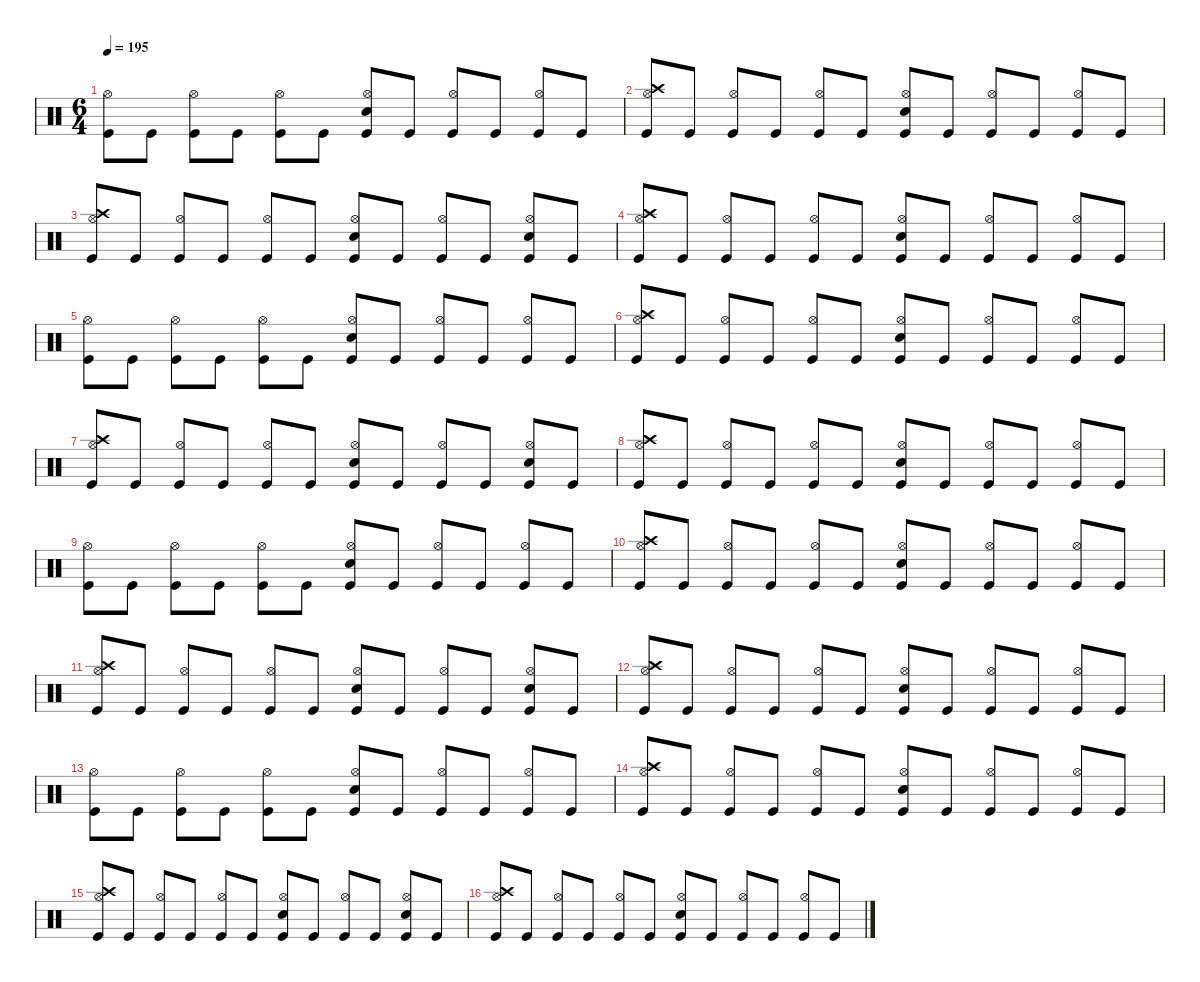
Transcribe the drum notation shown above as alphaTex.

\defaultSystemsLayout 4
\hideDynamics
\bracketExtendMode nobrackets
\singleTrackTrackNamePolicy hidden
\multiTrackTrackNamePolicy hidden
\firstSystemTrackNameMode fullname
\firstSystemTrackNameOrientation horizontal
\otherSystemsTrackNameOrientation horizontal
\track ("Percussion" "drm.") {instrument percussion}
\staff {score}
\articulation defaults
\ts (6 4)
\tempo 195
\clef neutral
\ks c
("Hi-Hat (open)" "Kick (hit)").8{dy f beam Down} "Kick (hit)".8{beam Down} ("Hi-Hat (open)" "Kick (hit)").8{beam Down} "Kick (hit)".8{beam Down} ("Hi-Hat (open)" "Kick (hit)").8{beam Down} "Kick (hit)".8{beam Down} ("Snare (hit) 2" "Hi-Hat (open)" "Kick (hit)").8{beam Up} "Kick (hit)".8{beam Up} ("Hi-Hat (open)" "Kick (hit)").8{beam Up} "Kick (hit)".8{beam Up} ("Hi-Hat (open)" "Kick (hit)").8{beam Up} "Kick (hit)".8{beam Up} |
("Crash high (hit)" "Hi-Hat (open)" "Kick (hit)").8{beam Up} "Kick (hit)".8{beam Up} ("Hi-Hat (open)" "Kick (hit)").8{beam Up} "Kick (hit)".8{beam Up} ("Hi-Hat (open)" "Kick (hit)").8{beam Up} "Kick (hit)".8{beam Up} ("Snare (hit) 2" "Hi-Hat (open)" "Kick (hit)").8{beam Up} "Kick (hit)".8{beam Up} ("Hi-Hat (open)" "Kick (hit)").8{beam Up} "Kick (hit)".8{beam Up} ("Hi-Hat (open)" "Kick (hit)").8{beam Up} "Kick (hit)".8{beam Up} |
("Crash high (hit)" "Hi-Hat (open)" "Kick (hit)").8{beam Up} "Kick (hit)".8{beam Up} ("Hi-Hat (open)" "Kick (hit)").8{beam Up} "Kick (hit)".8{beam Up} ("Hi-Hat (open)" "Kick (hit)").8{beam Up} "Kick (hit)".8{beam Up} ("Snare (hit) 2" "Hi-Hat (open)" "Kick (hit)").8{beam Up} "Kick (hit)".8{beam Up} ("Hi-Hat (open)" "Kick (hit)").8{beam Up} "Kick (hit)".8{beam Up} ("Snare (hit) 2" "Hi-Hat (open)" "Kick (hit)").8{beam Up} "Kick (hit)".8{beam Up} |
("Crash high (hit)" "Hi-Hat (open)" "Kick (hit)").8{beam Up} "Kick (hit)".8{beam Up} ("Hi-Hat (open)" "Kick (hit)").8{beam Up} "Kick (hit)".8{beam Up} ("Hi-Hat (open)" "Kick (hit)").8{beam Up} "Kick (hit)".8{beam Up} ("Snare (hit) 2" "Hi-Hat (open)" "Kick (hit)").8{beam Up} "Kick (hit)".8{beam Up} ("Hi-Hat (open)" "Kick (hit)").8{beam Up} "Kick (hit)".8{beam Up} ("Hi-Hat (open)" "Kick (hit)").8{beam Up} "Kick (hit)".8{beam Up} |
("Hi-Hat (open)" "Kick (hit)").8{beam Down} "Kick (hit)".8{beam Down} ("Hi-Hat (open)" "Kick (hit)").8{beam Down} "Kick (hit)".8{beam Down} ("Hi-Hat (open)" "Kick (hit)").8{beam Down} "Kick (hit)".8{beam Down} ("Snare (hit) 2" "Hi-Hat (open)" "Kick (hit)").8{beam Up} "Kick (hit)".8{beam Up} ("Hi-Hat (open)" "Kick (hit)").8{beam Up} "Kick (hit)".8{beam Up} ("Hi-Hat (open)" "Kick (hit)").8{beam Up} "Kick (hit)".8{beam Up} |
("Crash high (hit)" "Hi-Hat (open)" "Kick (hit)").8{beam Up} "Kick (hit)".8{beam Up} ("Hi-Hat (open)" "Kick (hit)").8{beam Up} "Kick (hit)".8{beam Up} ("Hi-Hat (open)" "Kick (hit)").8{beam Up} "Kick (hit)".8{beam Up} ("Snare (hit) 2" "Hi-Hat (open)" "Kick (hit)").8{beam Up} "Kick (hit)".8{beam Up} ("Hi-Hat (open)" "Kick (hit)").8{beam Up} "Kick (hit)".8{beam Up} ("Hi-Hat (open)" "Kick (hit)").8{beam Up} "Kick (hit)".8{beam Up} |
("Crash high (hit)" "Hi-Hat (open)" "Kick (hit)").8{beam Up} "Kick (hit)".8{beam Up} ("Hi-Hat (open)" "Kick (hit)").8{beam Up} "Kick (hit)".8{beam Up} ("Hi-Hat (open)" "Kick (hit)").8{beam Up} "Kick (hit)".8{beam Up} ("Snare (hit) 2" "Hi-Hat (open)" "Kick (hit)").8{beam Up} "Kick (hit)".8{beam Up} ("Hi-Hat (open)" "Kick (hit)").8{beam Up} "Kick (hit)".8{beam Up} ("Snare (hit) 2" "Hi-Hat (open)" "Kick (hit)").8{beam Up} "Kick (hit)".8{beam Up} |
("Crash high (hit)" "Hi-Hat (open)" "Kick (hit)").8{beam Up} "Kick (hit)".8{beam Up} ("Hi-Hat (open)" "Kick (hit)").8{beam Up} "Kick (hit)".8{beam Up} ("Hi-Hat (open)" "Kick (hit)").8{beam Up} "Kick (hit)".8{beam Up} ("Snare (hit) 2" "Hi-Hat (open)" "Kick (hit)").8{beam Up} "Kick (hit)".8{beam Up} ("Hi-Hat (open)" "Kick (hit)").8{beam Up} "Kick (hit)".8{beam Up} ("Hi-Hat (open)" "Kick (hit)").8{beam Up} "Kick (hit)".8{beam Up} |
("Hi-Hat (open)" "Kick (hit)").8{beam Down} "Kick (hit)".8{beam Down} ("Hi-Hat (open)" "Kick (hit)").8{beam Down} "Kick (hit)".8{beam Down} ("Hi-Hat (open)" "Kick (hit)").8{beam Down} "Kick (hit)".8{beam Down} ("Snare (hit) 2" "Hi-Hat (open)" "Kick (hit)").8{beam Up} "Kick (hit)".8{beam Up} ("Hi-Hat (open)" "Kick (hit)").8{beam Up} "Kick (hit)".8{beam Up} ("Hi-Hat (open)" "Kick (hit)").8{beam Up} "Kick (hit)".8{beam Up} |
("Crash high (hit)" "Hi-Hat (open)" "Kick (hit)").8{beam Up} "Kick (hit)".8{beam Up} ("Hi-Hat (open)" "Kick (hit)").8{beam Up} "Kick (hit)".8{beam Up} ("Hi-Hat (open)" "Kick (hit)").8{beam Up} "Kick (hit)".8{beam Up} ("Snare (hit) 2" "Hi-Hat (open)" "Kick (hit)").8{beam Up} "Kick (hit)".8{beam Up} ("Hi-Hat (open)" "Kick (hit)").8{beam Up} "Kick (hit)".8{beam Up} ("Hi-Hat (open)" "Kick (hit)").8{beam Up} "Kick (hit)".8{beam Up} |
("Crash high (hit)" "Hi-Hat (open)" "Kick (hit)").8{beam Up} "Kick (hit)".8{beam Up} ("Hi-Hat (open)" "Kick (hit)").8{beam Up} "Kick (hit)".8{beam Up} ("Hi-Hat (open)" "Kick (hit)").8{beam Up} "Kick (hit)".8{beam Up} ("Snare (hit) 2" "Hi-Hat (open)" "Kick (hit)").8{beam Up} "Kick (hit)".8{beam Up} ("Hi-Hat (open)" "Kick (hit)").8{beam Up} "Kick (hit)".8{beam Up} ("Snare (hit) 2" "Hi-Hat (open)" "Kick (hit)").8{beam Up} "Kick (hit)".8{beam Up} |
("Crash high (hit)" "Hi-Hat (open)" "Kick (hit)").8{beam Up} "Kick (hit)".8{beam Up} ("Hi-Hat (open)" "Kick (hit)").8{beam Up} "Kick (hit)".8{beam Up} ("Hi-Hat (open)" "Kick (hit)").8{beam Up} "Kick (hit)".8{beam Up} ("Snare (hit) 2" "Hi-Hat (open)" "Kick (hit)").8{beam Up} "Kick (hit)".8{beam Up} ("Hi-Hat (open)" "Kick (hit)").8{beam Up} "Kick (hit)".8{beam Up} ("Hi-Hat (open)" "Kick (hit)").8{beam Up} "Kick (hit)".8{beam Up} |
("Hi-Hat (open)" "Kick (hit)").8{beam Down} "Kick (hit)".8{beam Down} ("Hi-Hat (open)" "Kick (hit)").8{beam Down} "Kick (hit)".8{beam Down} ("Hi-Hat (open)" "Kick (hit)").8{beam Down} "Kick (hit)".8{beam Down} ("Snare (hit) 2" "Hi-Hat (open)" "Kick (hit)").8{beam Up} "Kick (hit)".8{beam Up} ("Hi-Hat (open)" "Kick (hit)").8{beam Up} "Kick (hit)".8{beam Up} ("Hi-Hat (open)" "Kick (hit)").8{beam Up} "Kick (hit)".8{beam Up} |
("Crash high (hit)" "Hi-Hat (open)" "Kick (hit)").8{beam Up} "Kick (hit)".8{beam Up} ("Hi-Hat (open)" "Kick (hit)").8{beam Up} "Kick (hit)".8{beam Up} ("Hi-Hat (open)" "Kick (hit)").8{beam Up} "Kick (hit)".8{beam Up} ("Snare (hit) 2" "Hi-Hat (open)" "Kick (hit)").8{beam Up} "Kick (hit)".8{beam Up} ("Hi-Hat (open)" "Kick (hit)").8{beam Up} "Kick (hit)".8{beam Up} ("Hi-Hat (open)" "Kick (hit)").8{beam Up} "Kick (hit)".8{beam Up} |
("Crash high (hit)" "Hi-Hat (open)" "Kick (hit)").8{beam Up} "Kick (hit)".8{beam Up} ("Hi-Hat (open)" "Kick (hit)").8{beam Up} "Kick (hit)".8{beam Up} ("Hi-Hat (open)" "Kick (hit)").8{beam Up} "Kick (hit)".8{beam Up} ("Snare (hit) 2" "Hi-Hat (open)" "Kick (hit)").8{beam Up} "Kick (hit)".8{beam Up} ("Hi-Hat (open)" "Kick (hit)").8{beam Up} "Kick (hit)".8{beam Up} ("Snare (hit) 2" "Hi-Hat (open)" "Kick (hit)").8{beam Up} "Kick (hit)".8{beam Up} |
("Crash high (hit)" "Hi-Hat (open)" "Kick (hit)").8{beam Up} "Kick (hit)".8{beam Up} ("Hi-Hat (open)" "Kick (hit)").8{beam Up} "Kick (hit)".8{beam Up} ("Hi-Hat (open)" "Kick (hit)").8{beam Up} "Kick (hit)".8{beam Up} ("Snare (hit) 2" "Hi-Hat (open)" "Kick (hit)").8{beam Up} "Kick (hit)".8{beam Up} ("Hi-Hat (open)" "Kick (hit)").8{beam Up} "Kick (hit)".8{beam Up} ("Hi-Hat (open)" "Kick (hit)").8{beam Up} "Kick (hit)".8{beam Up}
